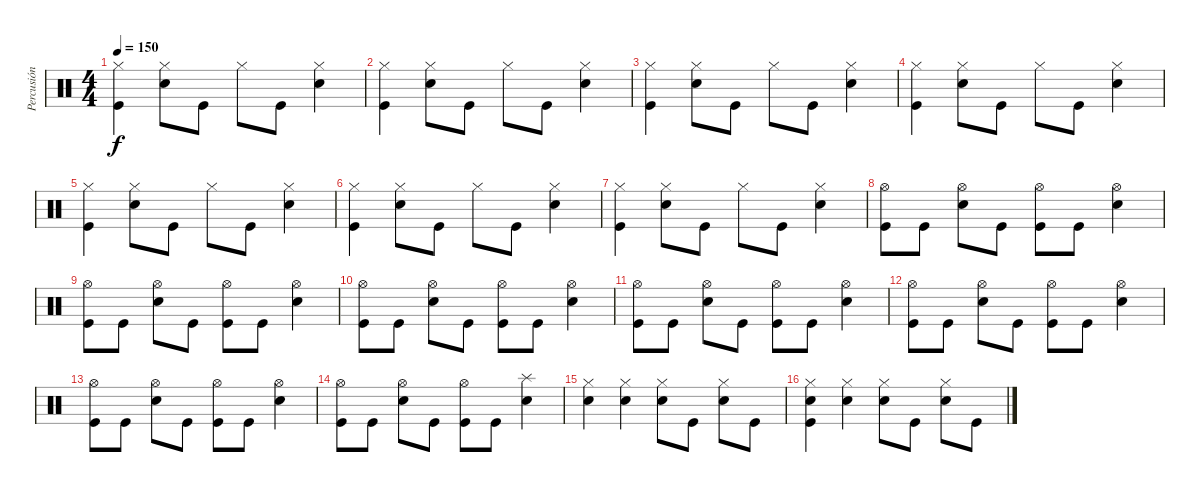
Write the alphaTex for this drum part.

\track ("Percusión" "Percusión") {instrument percussion}
\staff {score}
\articulation defaults
\ts (4 4)
\tempo 150
\clef neutral
\ks c
("Hi-Hat (closed)" "Kick (hit)").4{dy f} ("Hi-Hat (closed)" "Snare (hit) 2").8 "Kick (hit)".8 "Hi-Hat (closed)".8 "Kick (hit)".8 ("Hi-Hat (closed)" "Snare (hit) 2").4 |
("Hi-Hat (closed)" "Kick (hit)").4 ("Hi-Hat (closed)" "Snare (hit) 2").8 "Kick (hit)".8 "Hi-Hat (closed)".8 "Kick (hit)".8 ("Hi-Hat (closed)" "Snare (hit) 2").4 |
("Hi-Hat (closed)" "Kick (hit)").4 ("Hi-Hat (closed)" "Snare (hit) 2").8 "Kick (hit)".8 "Hi-Hat (closed)".8 "Kick (hit)".8 ("Hi-Hat (closed)" "Snare (hit) 2").4 |
("Hi-Hat (closed)" "Kick (hit)").4 ("Hi-Hat (closed)" "Snare (hit) 2").8 "Kick (hit)".8 "Hi-Hat (closed)".8 "Kick (hit)".8 ("Hi-Hat (closed)" "Snare (hit) 2").4 |
("Hi-Hat (closed)" "Kick (hit)").4 ("Hi-Hat (closed)" "Snare (hit) 2").8 "Kick (hit)".8 "Hi-Hat (closed)".8 "Kick (hit)".8 ("Hi-Hat (closed)" "Snare (hit) 2").4 |
("Hi-Hat (closed)" "Kick (hit)").4 ("Hi-Hat (closed)" "Snare (hit) 2").8 "Kick (hit)".8 "Hi-Hat (closed)".8 "Kick (hit)".8 ("Hi-Hat (closed)" "Snare (hit) 2").4 |
("Hi-Hat (closed)" "Kick (hit)").4 ("Hi-Hat (closed)" "Snare (hit) 2").8 "Kick (hit)".8 "Hi-Hat (closed)".8 "Kick (hit)".8 ("Hi-Hat (closed)" "Snare (hit) 2").4 |
("Hi-Hat (open)" "Kick (hit)").8 "Kick (hit)".8 ("Hi-Hat (open)" "Snare (hit) 2").8 "Kick (hit)".8 ("Hi-Hat (open)" "Kick (hit)").8 "Kick (hit)".8 ("Hi-Hat (open)" "Snare (hit) 2").4 |
("Hi-Hat (open)" "Kick (hit)").8 "Kick (hit)".8 ("Hi-Hat (open)" "Snare (hit) 2").8 "Kick (hit)".8 ("Hi-Hat (open)" "Kick (hit)").8 "Kick (hit)".8 ("Hi-Hat (open)" "Snare (hit) 2").4 |
("Hi-Hat (open)" "Kick (hit)").8 "Kick (hit)".8 ("Hi-Hat (open)" "Snare (hit) 2").8 "Kick (hit)".8 ("Hi-Hat (open)" "Kick (hit)").8 "Kick (hit)".8 ("Hi-Hat (open)" "Snare (hit) 2").4 |
("Hi-Hat (open)" "Kick (hit)").8 "Kick (hit)".8 ("Hi-Hat (open)" "Snare (hit) 2").8 "Kick (hit)".8 ("Hi-Hat (open)" "Kick (hit)").8 "Kick (hit)".8 ("Hi-Hat (open)" "Snare (hit) 2").4 |
("Hi-Hat (open)" "Kick (hit)").8 "Kick (hit)".8 ("Hi-Hat (open)" "Snare (hit) 2").8 "Kick (hit)".8 ("Hi-Hat (open)" "Kick (hit)").8 "Kick (hit)".8 ("Hi-Hat (open)" "Snare (hit) 2").4 |
("Hi-Hat (open)" "Kick (hit)").8 "Kick (hit)".8 ("Hi-Hat (open)" "Snare (hit) 2").8 "Kick (hit)".8 ("Hi-Hat (open)" "Kick (hit)").8 "Kick (hit)".8 ("Hi-Hat (open)" "Snare (hit) 2").4 |
("Hi-Hat (open)" "Kick (hit)").8 "Kick (hit)".8 ("Hi-Hat (open)" "Snare (hit) 2").8 "Kick (hit)".8 ("Hi-Hat (open)" "Kick (hit)").8 "Kick (hit)".8 ("Splash (hit)" "Snare (hit) 2").4 |
("Hi-Hat (closed)" "Snare (hit) 2").4 ("Hi-Hat (closed)" "Snare (hit) 2").4 ("Hi-Hat (closed)" "Snare (hit) 2").8 "Kick (hit)".8 ("Hi-Hat (closed)" "Snare (hit) 2").8 "Kick (hit)".8 |
("Hi-Hat (closed)" "Snare (hit) 2" "Kick (hit)").4 ("Hi-Hat (closed)" "Snare (hit) 2").4 ("Hi-Hat (closed)" "Snare (hit) 2").8 "Kick (hit)".8 ("Hi-Hat (closed)" "Snare (hit) 2").8 "Kick (hit)".8
